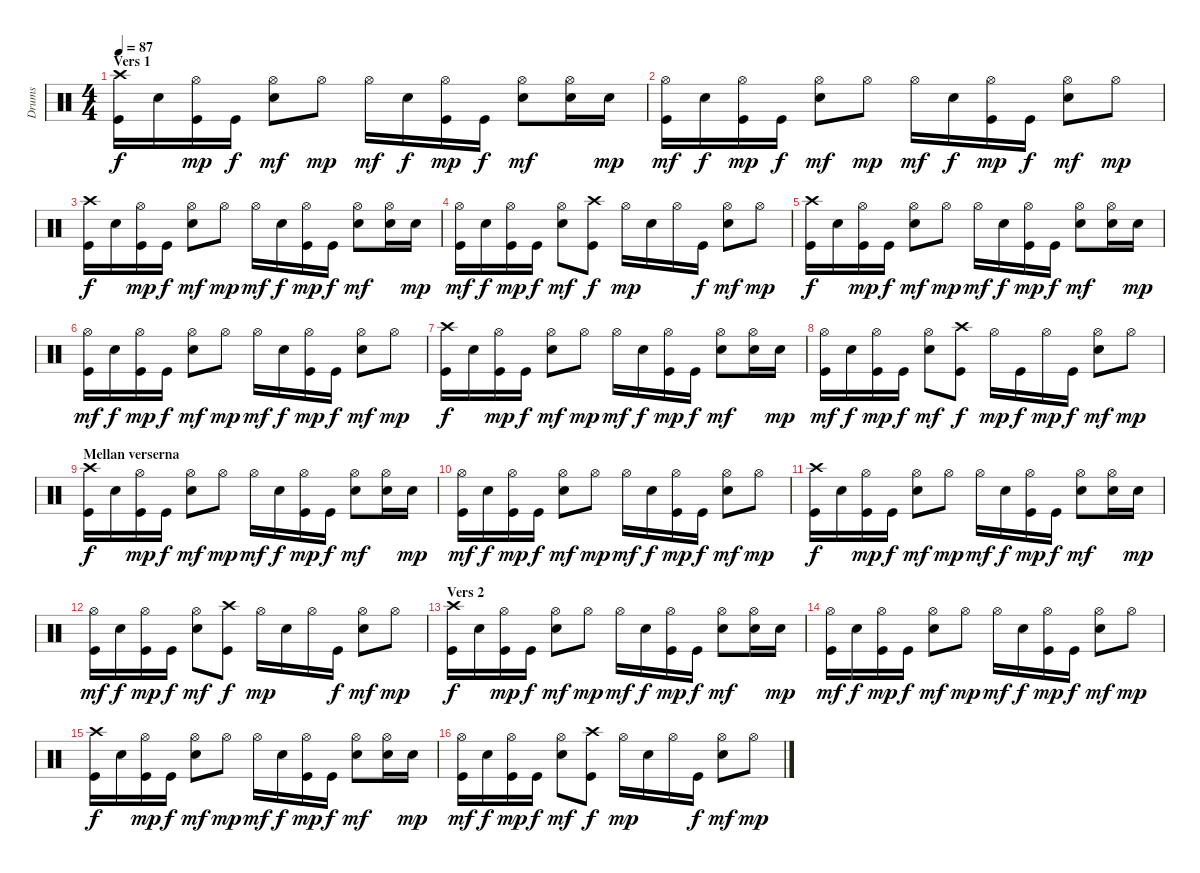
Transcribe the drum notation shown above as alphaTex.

\track ("Drums" "Drums") {instrument percussion}
\staff {score}
\articulation defaults
\ts (4 4)
\section ("" "Vers 1")
\tempo 87
\clef neutral
\ks c
("Crash high (hit)" "Kick (hit)").16{dy f} "Snare (hit) 2".16 ("Hi-Hat (open)" "Kick (hit)").16{dy mp} "Kick (hit)".16{dy f} ("Hi-Hat (open)" "Snare (hit) 2").8{dy mf} "Hi-Hat (open)".8{dy mp} "Hi-Hat (open)".16{dy mf} "Snare (hit) 2".16{dy f} ("Hi-Hat (open)" "Kick (hit)").16{dy mp} "Kick (hit)".16{dy f} ("Hi-Hat (open)" "Snare (hit) 2").8{dy mf} ("Hi-Hat (open)" "Snare (hit) 2").16 "Snare (hit) 2".16{dy mp} |
("Hi-Hat (open)" "Kick (hit)").16{dy mf} "Snare (hit) 2".16{dy f} ("Hi-Hat (open)" "Kick (hit)").16{dy mp} "Kick (hit)".16{dy f} ("Hi-Hat (open)" "Snare (hit) 2").8{dy mf} "Hi-Hat (open)".8{dy mp} "Hi-Hat (open)".16{dy mf} "Snare (hit) 2".16{dy f} ("Hi-Hat (open)" "Kick (hit)").16{dy mp} "Kick (hit)".16{dy f} ("Hi-Hat (open)" "Snare (hit) 2").8{dy mf} "Hi-Hat (open)".8{dy mp} |
("Crash high (hit)" "Kick (hit)").16{dy f} "Snare (hit) 2".16 ("Hi-Hat (open)" "Kick (hit)").16{dy mp} "Kick (hit)".16{dy f} ("Hi-Hat (open)" "Snare (hit) 2").8{dy mf} "Hi-Hat (open)".8{dy mp} "Hi-Hat (open)".16{dy mf} "Snare (hit) 2".16{dy f} ("Hi-Hat (open)" "Kick (hit)").16{dy mp} "Kick (hit)".16{dy f} ("Hi-Hat (open)" "Snare (hit) 2").8{dy mf} ("Hi-Hat (open)" "Snare (hit) 2").16 "Snare (hit) 2".16{dy mp} |
("Hi-Hat (open)" "Kick (hit)").16{dy mf} "Snare (hit) 2".16{dy f} ("Hi-Hat (open)" "Kick (hit)").16{dy mp} "Kick (hit)".16{dy f} ("Hi-Hat (open)" "Snare (hit) 2").8{dy mf} ("Crash high (hit)" "Kick (hit)").8{dy f} "Hi-Hat (open)".16{dy mp} "Snare (hit) 2".16 "Hi-Hat (open)".16 "Kick (hit)".16{dy f} ("Hi-Hat (open)" "Snare (hit) 2").8{dy mf} "Hi-Hat (open)".8{dy mp} |
("Crash high (hit)" "Kick (hit)").16{dy f} "Snare (hit) 2".16 ("Hi-Hat (open)" "Kick (hit)").16{dy mp} "Kick (hit)".16{dy f} ("Hi-Hat (open)" "Snare (hit) 2").8{dy mf} "Hi-Hat (open)".8{dy mp} "Hi-Hat (open)".16{dy mf} "Snare (hit) 2".16{dy f} ("Hi-Hat (open)" "Kick (hit)").16{dy mp} "Kick (hit)".16{dy f} ("Hi-Hat (open)" "Snare (hit) 2").8{dy mf} ("Hi-Hat (open)" "Snare (hit) 2").16 "Snare (hit) 2".16{dy mp} |
("Hi-Hat (open)" "Kick (hit)").16{dy mf} "Snare (hit) 2".16{dy f} ("Hi-Hat (open)" "Kick (hit)").16{dy mp} "Kick (hit)".16{dy f} ("Hi-Hat (open)" "Snare (hit) 2").8{dy mf} "Hi-Hat (open)".8{dy mp} "Hi-Hat (open)".16{dy mf} "Snare (hit) 2".16{dy f} ("Hi-Hat (open)" "Kick (hit)").16{dy mp} "Kick (hit)".16{dy f} ("Hi-Hat (open)" "Snare (hit) 2").8{dy mf} "Hi-Hat (open)".8{dy mp} |
("Crash high (hit)" "Kick (hit)").16{dy f} "Snare (hit) 2".16 ("Hi-Hat (open)" "Kick (hit)").16{dy mp} "Kick (hit)".16{dy f} ("Hi-Hat (open)" "Snare (hit) 2").8{dy mf} "Hi-Hat (open)".8{dy mp} "Hi-Hat (open)".16{dy mf} "Snare (hit) 2".16{dy f} ("Hi-Hat (open)" "Kick (hit)").16{dy mp} "Kick (hit)".16{dy f} ("Hi-Hat (open)" "Snare (hit) 2").8{dy mf} ("Hi-Hat (open)" "Snare (hit) 2").16 "Snare (hit) 2".16{dy mp} |
("Hi-Hat (open)" "Kick (hit)").16{dy mf} "Snare (hit) 2".16{dy f} ("Hi-Hat (open)" "Kick (hit)").16{dy mp} "Kick (hit)".16{dy f} ("Hi-Hat (open)" "Snare (hit) 2").8{dy mf} ("Crash high (hit)" "Kick (hit)").8{dy f} "Hi-Hat (open)".16{dy mp} "Kick (hit)".16{dy f} "Hi-Hat (open)".16{dy mp} "Kick (hit)".16{dy f} ("Hi-Hat (open)" "Snare (hit) 2").8{dy mf} "Hi-Hat (open)".8{dy mp} |
\section ("" "Mellan verserna")
("Crash high (hit)" "Kick (hit)").16{dy f} "Snare (hit) 2".16 ("Hi-Hat (open)" "Kick (hit)").16{dy mp} "Kick (hit)".16{dy f} ("Hi-Hat (open)" "Snare (hit) 2").8{dy mf} "Hi-Hat (open)".8{dy mp} "Hi-Hat (open)".16{dy mf} "Snare (hit) 2".16{dy f} ("Hi-Hat (open)" "Kick (hit)").16{dy mp} "Kick (hit)".16{dy f} ("Hi-Hat (open)" "Snare (hit) 2").8{dy mf} ("Hi-Hat (open)" "Snare (hit) 2").16 "Snare (hit) 2".16{dy mp} |
("Hi-Hat (open)" "Kick (hit)").16{dy mf} "Snare (hit) 2".16{dy f} ("Hi-Hat (open)" "Kick (hit)").16{dy mp} "Kick (hit)".16{dy f} ("Hi-Hat (open)" "Snare (hit) 2").8{dy mf} "Hi-Hat (open)".8{dy mp} "Hi-Hat (open)".16{dy mf} "Snare (hit) 2".16{dy f} ("Hi-Hat (open)" "Kick (hit)").16{dy mp} "Kick (hit)".16{dy f} ("Hi-Hat (open)" "Snare (hit) 2").8{dy mf} "Hi-Hat (open)".8{dy mp} |
("Crash high (hit)" "Kick (hit)").16{dy f} "Snare (hit) 2".16 ("Hi-Hat (open)" "Kick (hit)").16{dy mp} "Kick (hit)".16{dy f} ("Hi-Hat (open)" "Snare (hit) 2").8{dy mf} "Hi-Hat (open)".8{dy mp} "Hi-Hat (open)".16{dy mf} "Snare (hit) 2".16{dy f} ("Hi-Hat (open)" "Kick (hit)").16{dy mp} "Kick (hit)".16{dy f} ("Hi-Hat (open)" "Snare (hit) 2").8{dy mf} ("Hi-Hat (open)" "Snare (hit) 2").16 "Snare (hit) 2".16{dy mp} |
("Hi-Hat (open)" "Kick (hit)").16{dy mf} "Snare (hit) 2".16{dy f} ("Hi-Hat (open)" "Kick (hit)").16{dy mp} "Kick (hit)".16{dy f} ("Hi-Hat (open)" "Snare (hit) 2").8{dy mf} ("Crash high (hit)" "Kick (hit)").8{dy f} "Hi-Hat (open)".16{dy mp} "Snare (hit) 2".16 "Hi-Hat (open)".16 "Kick (hit)".16{dy f} ("Hi-Hat (open)" "Snare (hit) 2").8{dy mf} "Hi-Hat (open)".8{dy mp} |
\section ("" "Vers 2")
("Crash high (hit)" "Kick (hit)").16{dy f} "Snare (hit) 2".16 ("Hi-Hat (open)" "Kick (hit)").16{dy mp} "Kick (hit)".16{dy f} ("Hi-Hat (open)" "Snare (hit) 2").8{dy mf} "Hi-Hat (open)".8{dy mp} "Hi-Hat (open)".16{dy mf} "Snare (hit) 2".16{dy f} ("Hi-Hat (open)" "Kick (hit)").16{dy mp} "Kick (hit)".16{dy f} ("Hi-Hat (open)" "Snare (hit) 2").8{dy mf} ("Hi-Hat (open)" "Snare (hit) 2").16 "Snare (hit) 2".16{dy mp} |
("Hi-Hat (open)" "Kick (hit)").16{dy mf} "Snare (hit) 2".16{dy f} ("Hi-Hat (open)" "Kick (hit)").16{dy mp} "Kick (hit)".16{dy f} ("Hi-Hat (open)" "Snare (hit) 2").8{dy mf} "Hi-Hat (open)".8{dy mp} "Hi-Hat (open)".16{dy mf} "Snare (hit) 2".16{dy f} ("Hi-Hat (open)" "Kick (hit)").16{dy mp} "Kick (hit)".16{dy f} ("Hi-Hat (open)" "Snare (hit) 2").8{dy mf} "Hi-Hat (open)".8{dy mp} |
("Crash high (hit)" "Kick (hit)").16{dy f} "Snare (hit) 2".16 ("Hi-Hat (open)" "Kick (hit)").16{dy mp} "Kick (hit)".16{dy f} ("Hi-Hat (open)" "Snare (hit) 2").8{dy mf} "Hi-Hat (open)".8{dy mp} "Hi-Hat (open)".16{dy mf} "Snare (hit) 2".16{dy f} ("Hi-Hat (open)" "Kick (hit)").16{dy mp} "Kick (hit)".16{dy f} ("Hi-Hat (open)" "Snare (hit) 2").8{dy mf} ("Hi-Hat (open)" "Snare (hit) 2").16 "Snare (hit) 2".16{dy mp} |
("Hi-Hat (open)" "Kick (hit)").16{dy mf} "Snare (hit) 2".16{dy f} ("Hi-Hat (open)" "Kick (hit)").16{dy mp} "Kick (hit)".16{dy f} ("Hi-Hat (open)" "Snare (hit) 2").8{dy mf} ("Crash high (hit)" "Kick (hit)").8{dy f} "Hi-Hat (open)".16{dy mp} "Snare (hit) 2".16 "Hi-Hat (open)".16 "Kick (hit)".16{dy f} ("Hi-Hat (open)" "Snare (hit) 2").8{dy mf} "Hi-Hat (open)".8{dy mp}
